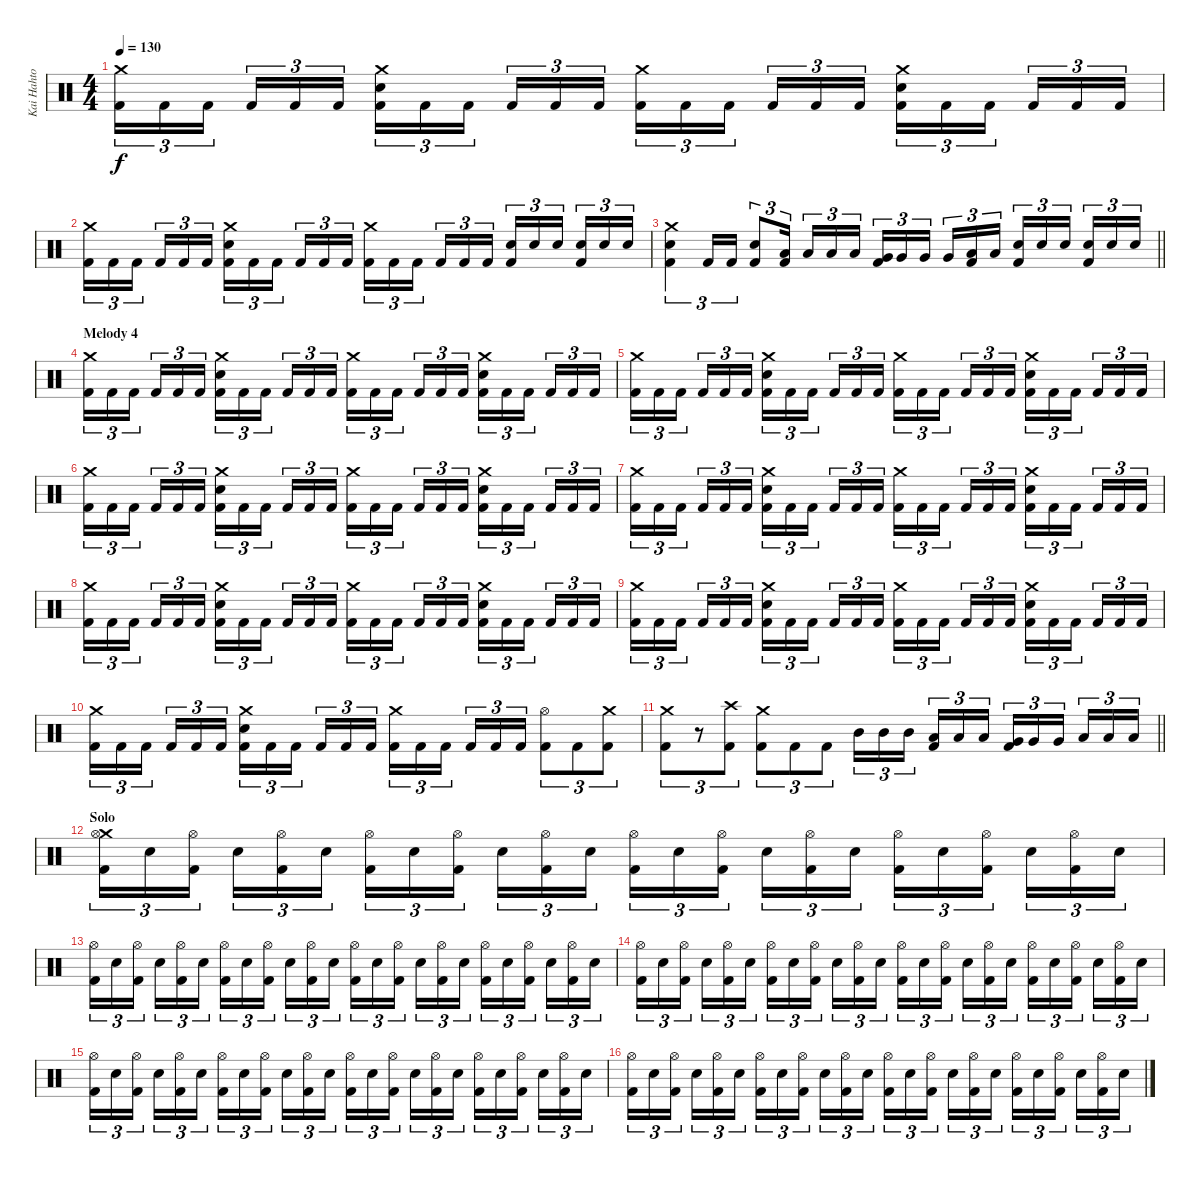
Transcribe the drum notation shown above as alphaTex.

\track ("Kai Hahto" "Kai Hahto") {instrument percussion}
\staff {score}
\articulation defaults
\ts (4 4)
\tempo 130
\clef neutral
\ks c
("Crash medium (hit)" "Kick (hit) 2").16{tu (3 2) dy f} "Kick (hit) 2".16{tu (3 2)} "Kick (hit) 2".16{tu (3 2) beam splitsecondary} "Kick (hit) 2".16{tu (3 2)} "Kick (hit) 2".16{tu (3 2)} "Kick (hit) 2".16{tu (3 2)} ("Crash medium (hit)" "Snare (hit) 2" "Kick (hit) 2").16{tu (3 2)} "Kick (hit) 2".16{tu (3 2)} "Kick (hit) 2".16{tu (3 2) beam splitsecondary} "Kick (hit) 2".16{tu (3 2)} "Kick (hit) 2".16{tu (3 2)} "Kick (hit) 2".16{tu (3 2)} ("Crash medium (hit)" "Kick (hit) 2").16{tu (3 2)} "Kick (hit) 2".16{tu (3 2)} "Kick (hit) 2".16{tu (3 2) beam splitsecondary} "Kick (hit) 2".16{tu (3 2)} "Kick (hit) 2".16{tu (3 2)} "Kick (hit) 2".16{tu (3 2)} ("Crash medium (hit)" "Snare (hit) 2" "Kick (hit) 2").16{tu (3 2)} "Kick (hit) 2".16{tu (3 2)} "Kick (hit) 2".16{tu (3 2) beam splitsecondary} "Kick (hit) 2".16{tu (3 2)} "Kick (hit) 2".16{tu (3 2)} "Kick (hit) 2".16{tu (3 2)} |
("Crash medium (hit)" "Kick (hit) 2").16{tu (3 2)} "Kick (hit) 2".16{tu (3 2)} "Kick (hit) 2".16{tu (3 2) beam splitsecondary} "Kick (hit) 2".16{tu (3 2)} "Kick (hit) 2".16{tu (3 2)} "Kick (hit) 2".16{tu (3 2)} ("Crash medium (hit)" "Snare (hit) 2" "Kick (hit) 2").16{tu (3 2)} "Kick (hit) 2".16{tu (3 2)} "Kick (hit) 2".16{tu (3 2) beam splitsecondary} "Kick (hit) 2".16{tu (3 2)} "Kick (hit) 2".16{tu (3 2)} "Kick (hit) 2".16{tu (3 2)} ("Crash medium (hit)" "Kick (hit) 2").16{tu (3 2)} "Kick (hit) 2".16{tu (3 2)} "Kick (hit) 2".16{tu (3 2) beam splitsecondary} "Kick (hit) 2".16{tu (3 2)} "Kick (hit) 2".16{tu (3 2)} "Kick (hit) 2".16{tu (3 2)} ("Snare (hit) 2" "Kick (hit) 2").16{tu (3 2)} "Snare (hit) 2".16{tu (3 2)} "Snare (hit) 2".16{tu (3 2) beam splitsecondary} ("Snare (hit) 2" "Kick (hit) 2").16{tu (3 2)} "Snare (hit) 2".16{tu (3 2)} "Snare (hit) 2".16{tu (3 2)} |
\barLineRight lightlight
("Crash medium (hit)" "Snare (hit) 2" "Kick (hit) 2").4{tu (3 2)} "Kick (hit) 2".16{tu (3 2)} "Kick (hit) 2".16{tu (3 2)} ("Snare (hit) 2" "Kick (hit) 2").8{tu (3 2)} ("Low Tom (hit)" "Kick (hit) 2").16{tu (3 2) beam splitsecondary} "Low Tom (hit)".16{tu (3 2)} "Low Tom (hit)".16{tu (3 2)} "Low Tom (hit)".16{tu (3 2)} ("Very Low Tom (hit)" "Kick (hit) 2").16{tu (3 2)} "Very Low Tom (hit)".16{tu (3 2)} "Very Low Tom (hit)".16{tu (3 2) beam splitsecondary} "Very Low Tom (hit)".16{tu (3 2)} ("Low Floor Tom (hit)" "Kick (hit) 2").16{tu (3 2)} "Low Floor Tom (hit)".16{tu (3 2)} ("Snare (hit) 2" "Kick (hit) 2").16{tu (3 2)} "Snare (hit) 2".16{tu (3 2)} "Snare (hit) 2".16{tu (3 2) beam splitsecondary} ("Snare (hit) 2" "Kick (hit) 2").16{tu (3 2)} "Snare (hit) 2".16{tu (3 2)} "Snare (hit) 2".16{tu (3 2)} |
\section ("" "Melody 4")
("Crash medium (hit)" "Kick (hit) 2").16{tu (3 2)} "Kick (hit) 2".16{tu (3 2)} "Kick (hit) 2".16{tu (3 2) beam splitsecondary} "Kick (hit) 2".16{tu (3 2)} "Kick (hit) 2".16{tu (3 2)} "Kick (hit) 2".16{tu (3 2)} ("Crash medium (hit)" "Snare (hit) 2" "Kick (hit) 2").16{tu (3 2)} "Kick (hit) 2".16{tu (3 2)} "Kick (hit) 2".16{tu (3 2) beam splitsecondary} "Kick (hit) 2".16{tu (3 2)} "Kick (hit) 2".16{tu (3 2)} "Kick (hit) 2".16{tu (3 2)} ("Crash medium (hit)" "Kick (hit) 2").16{tu (3 2)} "Kick (hit) 2".16{tu (3 2)} "Kick (hit) 2".16{tu (3 2) beam splitsecondary} "Kick (hit) 2".16{tu (3 2)} "Kick (hit) 2".16{tu (3 2)} "Kick (hit) 2".16{tu (3 2)} ("Crash medium (hit)" "Snare (hit) 2" "Kick (hit) 2").16{tu (3 2)} "Kick (hit) 2".16{tu (3 2)} "Kick (hit) 2".16{tu (3 2) beam splitsecondary} "Kick (hit) 2".16{tu (3 2)} "Kick (hit) 2".16{tu (3 2)} "Kick (hit) 2".16{tu (3 2)} |
("Crash medium (hit)" "Kick (hit) 2").16{tu (3 2)} "Kick (hit) 2".16{tu (3 2)} "Kick (hit) 2".16{tu (3 2) beam splitsecondary} "Kick (hit) 2".16{tu (3 2)} "Kick (hit) 2".16{tu (3 2)} "Kick (hit) 2".16{tu (3 2)} ("Crash medium (hit)" "Snare (hit) 2" "Kick (hit) 2").16{tu (3 2)} "Kick (hit) 2".16{tu (3 2)} "Kick (hit) 2".16{tu (3 2) beam splitsecondary} "Kick (hit) 2".16{tu (3 2)} "Kick (hit) 2".16{tu (3 2)} "Kick (hit) 2".16{tu (3 2)} ("Crash medium (hit)" "Kick (hit) 2").16{tu (3 2)} "Kick (hit) 2".16{tu (3 2)} "Kick (hit) 2".16{tu (3 2) beam splitsecondary} "Kick (hit) 2".16{tu (3 2)} "Kick (hit) 2".16{tu (3 2)} "Kick (hit) 2".16{tu (3 2)} ("Crash medium (hit)" "Snare (hit) 2" "Kick (hit) 2").16{tu (3 2)} "Kick (hit) 2".16{tu (3 2)} "Kick (hit) 2".16{tu (3 2) beam splitsecondary} "Kick (hit) 2".16{tu (3 2)} "Kick (hit) 2".16{tu (3 2)} "Kick (hit) 2".16{tu (3 2)} |
("Crash medium (hit)" "Kick (hit) 2").16{tu (3 2)} "Kick (hit) 2".16{tu (3 2)} "Kick (hit) 2".16{tu (3 2) beam splitsecondary} "Kick (hit) 2".16{tu (3 2)} "Kick (hit) 2".16{tu (3 2)} "Kick (hit) 2".16{tu (3 2)} ("Crash medium (hit)" "Snare (hit) 2" "Kick (hit) 2").16{tu (3 2)} "Kick (hit) 2".16{tu (3 2)} "Kick (hit) 2".16{tu (3 2) beam splitsecondary} "Kick (hit) 2".16{tu (3 2)} "Kick (hit) 2".16{tu (3 2)} "Kick (hit) 2".16{tu (3 2)} ("Crash medium (hit)" "Kick (hit) 2").16{tu (3 2)} "Kick (hit) 2".16{tu (3 2)} "Kick (hit) 2".16{tu (3 2) beam splitsecondary} "Kick (hit) 2".16{tu (3 2)} "Kick (hit) 2".16{tu (3 2)} "Kick (hit) 2".16{tu (3 2)} ("Crash medium (hit)" "Snare (hit) 2" "Kick (hit) 2").16{tu (3 2)} "Kick (hit) 2".16{tu (3 2)} "Kick (hit) 2".16{tu (3 2) beam splitsecondary} "Kick (hit) 2".16{tu (3 2)} "Kick (hit) 2".16{tu (3 2)} "Kick (hit) 2".16{tu (3 2)} |
("Crash medium (hit)" "Kick (hit) 2").16{tu (3 2)} "Kick (hit) 2".16{tu (3 2)} "Kick (hit) 2".16{tu (3 2) beam splitsecondary} "Kick (hit) 2".16{tu (3 2)} "Kick (hit) 2".16{tu (3 2)} "Kick (hit) 2".16{tu (3 2)} ("Crash medium (hit)" "Snare (hit) 2" "Kick (hit) 2").16{tu (3 2)} "Kick (hit) 2".16{tu (3 2)} "Kick (hit) 2".16{tu (3 2) beam splitsecondary} "Kick (hit) 2".16{tu (3 2)} "Kick (hit) 2".16{tu (3 2)} "Kick (hit) 2".16{tu (3 2)} ("Crash medium (hit)" "Kick (hit) 2").16{tu (3 2)} "Kick (hit) 2".16{tu (3 2)} "Kick (hit) 2".16{tu (3 2) beam splitsecondary} "Kick (hit) 2".16{tu (3 2)} "Kick (hit) 2".16{tu (3 2)} "Kick (hit) 2".16{tu (3 2)} ("Crash medium (hit)" "Snare (hit) 2" "Kick (hit) 2").16{tu (3 2)} "Kick (hit) 2".16{tu (3 2)} "Kick (hit) 2".16{tu (3 2) beam splitsecondary} "Kick (hit) 2".16{tu (3 2)} "Kick (hit) 2".16{tu (3 2)} "Kick (hit) 2".16{tu (3 2)} |
("Crash medium (hit)" "Kick (hit) 2").16{tu (3 2)} "Kick (hit) 2".16{tu (3 2)} "Kick (hit) 2".16{tu (3 2) beam splitsecondary} "Kick (hit) 2".16{tu (3 2)} "Kick (hit) 2".16{tu (3 2)} "Kick (hit) 2".16{tu (3 2)} ("Crash medium (hit)" "Snare (hit) 2" "Kick (hit) 2").16{tu (3 2)} "Kick (hit) 2".16{tu (3 2)} "Kick (hit) 2".16{tu (3 2) beam splitsecondary} "Kick (hit) 2".16{tu (3 2)} "Kick (hit) 2".16{tu (3 2)} "Kick (hit) 2".16{tu (3 2)} ("Crash medium (hit)" "Kick (hit) 2").16{tu (3 2)} "Kick (hit) 2".16{tu (3 2)} "Kick (hit) 2".16{tu (3 2) beam splitsecondary} "Kick (hit) 2".16{tu (3 2)} "Kick (hit) 2".16{tu (3 2)} "Kick (hit) 2".16{tu (3 2)} ("Crash medium (hit)" "Snare (hit) 2" "Kick (hit) 2").16{tu (3 2)} "Kick (hit) 2".16{tu (3 2)} "Kick (hit) 2".16{tu (3 2) beam splitsecondary} "Kick (hit) 2".16{tu (3 2)} "Kick (hit) 2".16{tu (3 2)} "Kick (hit) 2".16{tu (3 2)} |
("Crash medium (hit)" "Kick (hit) 2").16{tu (3 2)} "Kick (hit) 2".16{tu (3 2)} "Kick (hit) 2".16{tu (3 2) beam splitsecondary} "Kick (hit) 2".16{tu (3 2)} "Kick (hit) 2".16{tu (3 2)} "Kick (hit) 2".16{tu (3 2)} ("Crash medium (hit)" "Snare (hit) 2" "Kick (hit) 2").16{tu (3 2)} "Kick (hit) 2".16{tu (3 2)} "Kick (hit) 2".16{tu (3 2) beam splitsecondary} "Kick (hit) 2".16{tu (3 2)} "Kick (hit) 2".16{tu (3 2)} "Kick (hit) 2".16{tu (3 2)} ("Crash medium (hit)" "Kick (hit) 2").16{tu (3 2)} "Kick (hit) 2".16{tu (3 2)} "Kick (hit) 2".16{tu (3 2) beam splitsecondary} "Kick (hit) 2".16{tu (3 2)} "Kick (hit) 2".16{tu (3 2)} "Kick (hit) 2".16{tu (3 2)} ("Crash medium (hit)" "Snare (hit) 2" "Kick (hit) 2").16{tu (3 2)} "Kick (hit) 2".16{tu (3 2)} "Kick (hit) 2".16{tu (3 2) beam splitsecondary} "Kick (hit) 2".16{tu (3 2)} "Kick (hit) 2".16{tu (3 2)} "Kick (hit) 2".16{tu (3 2)} |
("Crash medium (hit)" "Kick (hit) 2").16{tu (3 2)} "Kick (hit) 2".16{tu (3 2)} "Kick (hit) 2".16{tu (3 2) beam splitsecondary} "Kick (hit) 2".16{tu (3 2)} "Kick (hit) 2".16{tu (3 2)} "Kick (hit) 2".16{tu (3 2)} ("Crash medium (hit)" "Snare (hit) 2" "Kick (hit) 2").16{tu (3 2)} "Kick (hit) 2".16{tu (3 2)} "Kick (hit) 2".16{tu (3 2) beam splitsecondary} "Kick (hit) 2".16{tu (3 2)} "Kick (hit) 2".16{tu (3 2)} "Kick (hit) 2".16{tu (3 2)} ("Crash medium (hit)" "Kick (hit) 2").16{tu (3 2)} "Kick (hit) 2".16{tu (3 2)} "Kick (hit) 2".16{tu (3 2) beam splitsecondary} "Kick (hit) 2".16{tu (3 2)} "Kick (hit) 2".16{tu (3 2)} "Kick (hit) 2".16{tu (3 2)} ("Hi-Hat (open)" "Kick (hit) 2").8{tu (3 2)} "Kick (hit) 2".8{tu (3 2)} ("Crash medium (hit)" "Kick (hit) 2").8{tu (3 2)} |
\barLineRight lightlight
("Crash medium (hit)" "Kick (hit) 2").8{tu (3 2)} r.8{tu (3 2)} ("Crash high (hit)" "Kick (hit) 2").8{tu (3 2)} ("Crash medium (hit)" "Kick (hit) 2").8{tu (3 2)} "Kick (hit) 2".8{tu (3 2)} "Kick (hit) 2".8{tu (3 2)} "Mid Tom (hit)".16{tu (3 2)} "Mid Tom (hit)".16{tu (3 2)} "Mid Tom (hit)".16{tu (3 2) beam splitsecondary} ("Low Tom (hit)" "Kick (hit) 2").16{tu (3 2)} "Low Tom (hit)".16{tu (3 2)} "Low Tom (hit)".16{tu (3 2)} ("Very Low Tom (hit)" "Kick (hit) 2").16{tu (3 2)} "Very Low Tom (hit)".16{tu (3 2)} "Very Low Tom (hit)".16{tu (3 2) beam splitsecondary} "Low Floor Tom (hit)".16{tu (3 2)} "Low Floor Tom (hit)".16{tu (3 2)} "Low Floor Tom (hit)".16{tu (3 2)} |
\section ("" "Solo")
("Crash medium (hit)" "Hi-Hat (open)" "Kick (hit) 2").16{tu (3 2)} "Snare (hit) 2".16{tu (3 2)} ("Hi-Hat (open)" "Kick (hit) 2").16{tu (3 2) beam splitsecondary} "Snare (hit) 2".16{tu (3 2)} ("Hi-Hat (open)" "Kick (hit) 2").16{tu (3 2)} "Snare (hit) 2".16{tu (3 2)} ("Hi-Hat (open)" "Kick (hit) 2").16{tu (3 2)} "Snare (hit) 2".16{tu (3 2)} ("Hi-Hat (open)" "Kick (hit) 2").16{tu (3 2) beam splitsecondary} "Snare (hit) 2".16{tu (3 2)} ("Hi-Hat (open)" "Kick (hit) 2").16{tu (3 2)} "Snare (hit) 2".16{tu (3 2)} ("Hi-Hat (open)" "Kick (hit) 2").16{tu (3 2)} "Snare (hit) 2".16{tu (3 2)} ("Hi-Hat (open)" "Kick (hit) 2").16{tu (3 2) beam splitsecondary} "Snare (hit) 2".16{tu (3 2)} ("Hi-Hat (open)" "Kick (hit) 2").16{tu (3 2)} "Snare (hit) 2".16{tu (3 2)} ("Hi-Hat (open)" "Kick (hit) 2").16{tu (3 2)} "Snare (hit) 2".16{tu (3 2)} ("Hi-Hat (open)" "Kick (hit) 2").16{tu (3 2) beam splitsecondary} "Snare (hit) 2".16{tu (3 2)} ("Hi-Hat (open)" "Kick (hit) 2").16{tu (3 2)} "Snare (hit) 2".16{tu (3 2)} |
("Hi-Hat (open)" "Kick (hit) 2").16{tu (3 2)} "Snare (hit) 2".16{tu (3 2)} ("Hi-Hat (open)" "Kick (hit) 2").16{tu (3 2) beam splitsecondary} "Snare (hit) 2".16{tu (3 2)} ("Hi-Hat (open)" "Kick (hit) 2").16{tu (3 2)} "Snare (hit) 2".16{tu (3 2)} ("Hi-Hat (open)" "Kick (hit) 2").16{tu (3 2)} "Snare (hit) 2".16{tu (3 2)} ("Hi-Hat (open)" "Kick (hit) 2").16{tu (3 2) beam splitsecondary} "Snare (hit) 2".16{tu (3 2)} ("Hi-Hat (open)" "Kick (hit) 2").16{tu (3 2)} "Snare (hit) 2".16{tu (3 2)} ("Hi-Hat (open)" "Kick (hit) 2").16{tu (3 2)} "Snare (hit) 2".16{tu (3 2)} ("Hi-Hat (open)" "Kick (hit) 2").16{tu (3 2) beam splitsecondary} "Snare (hit) 2".16{tu (3 2)} ("Hi-Hat (open)" "Kick (hit) 2").16{tu (3 2)} "Snare (hit) 2".16{tu (3 2)} ("Hi-Hat (open)" "Kick (hit) 2").16{tu (3 2)} "Snare (hit) 2".16{tu (3 2)} ("Hi-Hat (open)" "Kick (hit) 2").16{tu (3 2) beam splitsecondary} "Snare (hit) 2".16{tu (3 2)} ("Hi-Hat (open)" "Kick (hit) 2").16{tu (3 2)} "Snare (hit) 2".16{tu (3 2)} |
("Hi-Hat (open)" "Kick (hit) 2").16{tu (3 2)} "Snare (hit) 2".16{tu (3 2)} ("Hi-Hat (open)" "Kick (hit) 2").16{tu (3 2) beam splitsecondary} "Snare (hit) 2".16{tu (3 2)} ("Hi-Hat (open)" "Kick (hit) 2").16{tu (3 2)} "Snare (hit) 2".16{tu (3 2)} ("Hi-Hat (open)" "Kick (hit) 2").16{tu (3 2)} "Snare (hit) 2".16{tu (3 2)} ("Hi-Hat (open)" "Kick (hit) 2").16{tu (3 2) beam splitsecondary} "Snare (hit) 2".16{tu (3 2)} ("Hi-Hat (open)" "Kick (hit) 2").16{tu (3 2)} "Snare (hit) 2".16{tu (3 2)} ("Hi-Hat (open)" "Kick (hit) 2").16{tu (3 2)} "Snare (hit) 2".16{tu (3 2)} ("Hi-Hat (open)" "Kick (hit) 2").16{tu (3 2) beam splitsecondary} "Snare (hit) 2".16{tu (3 2)} ("Hi-Hat (open)" "Kick (hit) 2").16{tu (3 2)} "Snare (hit) 2".16{tu (3 2)} ("Hi-Hat (open)" "Kick (hit) 2").16{tu (3 2)} "Snare (hit) 2".16{tu (3 2)} ("Hi-Hat (open)" "Kick (hit) 2").16{tu (3 2) beam splitsecondary} "Snare (hit) 2".16{tu (3 2)} ("Hi-Hat (open)" "Kick (hit) 2").16{tu (3 2)} "Snare (hit) 2".16{tu (3 2)} |
("Hi-Hat (open)" "Kick (hit) 2").16{tu (3 2)} "Snare (hit) 2".16{tu (3 2)} ("Hi-Hat (open)" "Kick (hit) 2").16{tu (3 2) beam splitsecondary} "Snare (hit) 2".16{tu (3 2)} ("Hi-Hat (open)" "Kick (hit) 2").16{tu (3 2)} "Snare (hit) 2".16{tu (3 2)} ("Hi-Hat (open)" "Kick (hit) 2").16{tu (3 2)} "Snare (hit) 2".16{tu (3 2)} ("Hi-Hat (open)" "Kick (hit) 2").16{tu (3 2) beam splitsecondary} "Snare (hit) 2".16{tu (3 2)} ("Hi-Hat (open)" "Kick (hit) 2").16{tu (3 2)} "Snare (hit) 2".16{tu (3 2)} ("Hi-Hat (open)" "Kick (hit) 2").16{tu (3 2)} "Snare (hit) 2".16{tu (3 2)} ("Hi-Hat (open)" "Kick (hit) 2").16{tu (3 2) beam splitsecondary} "Snare (hit) 2".16{tu (3 2)} ("Hi-Hat (open)" "Kick (hit) 2").16{tu (3 2)} "Snare (hit) 2".16{tu (3 2)} ("Hi-Hat (open)" "Kick (hit) 2").16{tu (3 2)} "Snare (hit) 2".16{tu (3 2)} ("Hi-Hat (open)" "Kick (hit) 2").16{tu (3 2) beam splitsecondary} "Snare (hit) 2".16{tu (3 2)} ("Hi-Hat (open)" "Kick (hit) 2").16{tu (3 2)} "Snare (hit) 2".16{tu (3 2)} |
("Hi-Hat (open)" "Kick (hit) 2").16{tu (3 2)} "Snare (hit) 2".16{tu (3 2)} ("Hi-Hat (open)" "Kick (hit) 2").16{tu (3 2) beam splitsecondary} "Snare (hit) 2".16{tu (3 2)} ("Hi-Hat (open)" "Kick (hit) 2").16{tu (3 2)} "Snare (hit) 2".16{tu (3 2)} ("Hi-Hat (open)" "Kick (hit) 2").16{tu (3 2)} "Snare (hit) 2".16{tu (3 2)} ("Hi-Hat (open)" "Kick (hit) 2").16{tu (3 2) beam splitsecondary} "Snare (hit) 2".16{tu (3 2)} ("Hi-Hat (open)" "Kick (hit) 2").16{tu (3 2)} "Snare (hit) 2".16{tu (3 2)} ("Hi-Hat (open)" "Kick (hit) 2").16{tu (3 2)} "Snare (hit) 2".16{tu (3 2)} ("Hi-Hat (open)" "Kick (hit) 2").16{tu (3 2) beam splitsecondary} "Snare (hit) 2".16{tu (3 2)} ("Hi-Hat (open)" "Kick (hit) 2").16{tu (3 2)} "Snare (hit) 2".16{tu (3 2)} ("Hi-Hat (open)" "Kick (hit) 2").16{tu (3 2)} "Snare (hit) 2".16{tu (3 2)} ("Hi-Hat (open)" "Kick (hit) 2").16{tu (3 2) beam splitsecondary} "Snare (hit) 2".16{tu (3 2)} ("Hi-Hat (open)" "Kick (hit) 2").16{tu (3 2)} "Snare (hit) 2".16{tu (3 2)}
